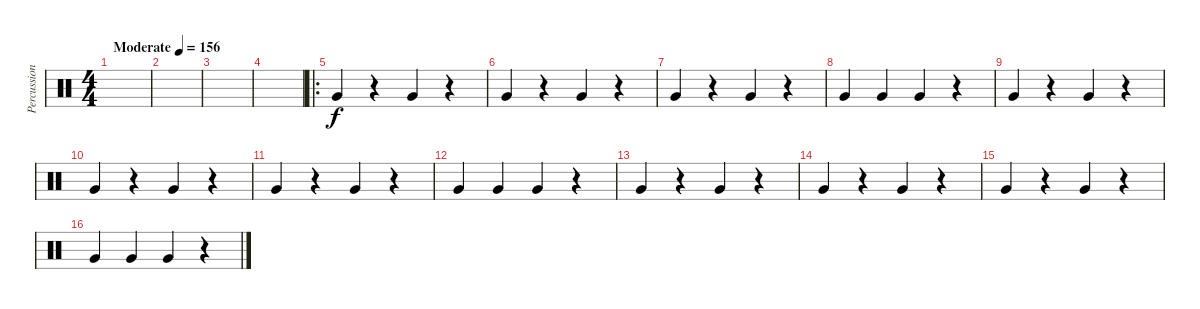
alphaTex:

\track ("Percussions" "Percussion") {instrument percussion}
\staff {score}
\articulation defaults
\ts (4 4)
\tempo (156 "Moderate")
\clef neutral
\ks c
|
|
|
|
\ro "Very Low Tom (hit)".4
r.4 "Very Low Tom (hit)".4 r.4 |
"Very Low Tom (hit)".4 r.4 "Very Low Tom (hit)".4 r.4 |
"Very Low Tom (hit)".4 r.4 "Very Low Tom (hit)".4 r.4 |
"Very Low Tom (hit)".4 "Very Low Tom (hit)".4 "Very Low Tom (hit)".4 r.4 |
"Very Low Tom (hit)".4 r.4 "Very Low Tom (hit)".4 r.4 |
"Very Low Tom (hit)".4 r.4 "Very Low Tom (hit)".4 r.4 |
"Very Low Tom (hit)".4 r.4 "Very Low Tom (hit)".4 r.4 |
"Very Low Tom (hit)".4 "Very Low Tom (hit)".4 "Very Low Tom (hit)".4 r.4 |
"Very Low Tom (hit)".4 r.4 "Very Low Tom (hit)".4 r.4 |
"Very Low Tom (hit)".4 r.4 "Very Low Tom (hit)".4 r.4 |
"Very Low Tom (hit)".4 r.4 "Very Low Tom (hit)".4 r.4 |
"Very Low Tom (hit)".4 "Very Low Tom (hit)".4 "Very Low Tom (hit)".4 r.4
